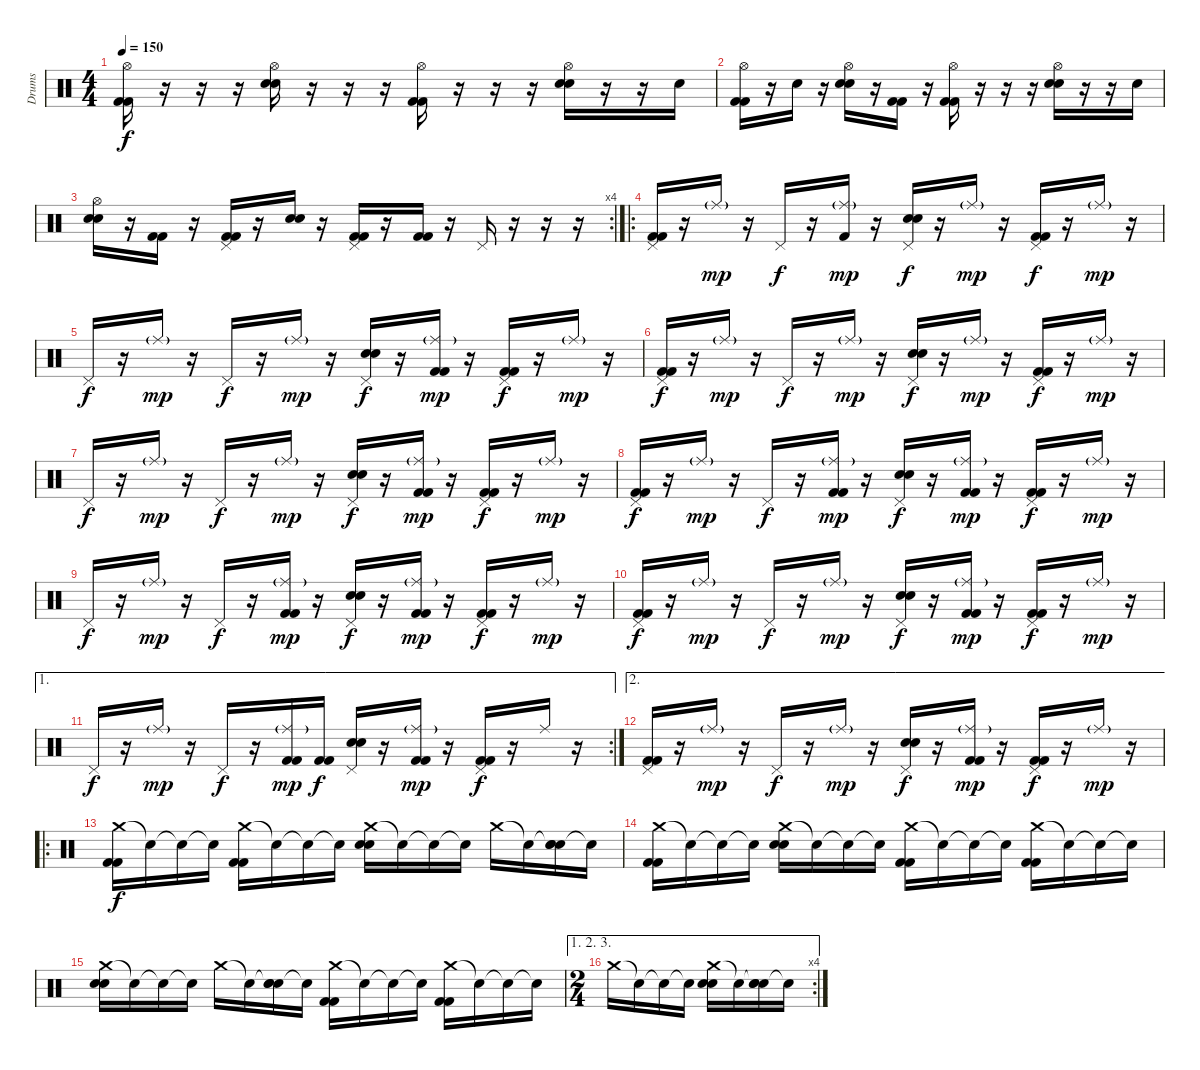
\track ("Drums" "Drums") {instrument percussion}
\staff {score}
\articulation defaults
\ts (4 4)
\tempo 150
\clef neutral
\ks c
("Hi-Hat (open)" "Kick (hit) 2" "Kick (hit) 2").16{dy f} r.16 r.16 r.16 ("Hi-Hat (open)" "Electric Snare (hit)" "Electric Snare (hit)").16 r.16 r.16 r.16 ("Hi-Hat (open)" "Kick (hit) 2" "Kick (hit) 2").16 r.16 r.16 r.16 ("Hi-Hat (open)" "Electric Snare (hit)" "Electric Snare (hit)").16 r.16 r.16 "Electric Snare (hit)".16 |
("Hi-Hat (open)" "Kick (hit) 2" "Kick (hit) 2").16 r.16 "Electric Snare (hit)".16 r.16 ("Hi-Hat (open)" "Electric Snare (hit)" "Electric Snare (hit)").16 r.16 ("Kick (hit) 2" "Kick (hit) 2").16 r.16 ("Hi-Hat (open)" "Kick (hit) 2" "Kick (hit) 2").16 r.16 r.16 r.16 ("Hi-Hat (open)" "Electric Snare (hit)" "Electric Snare (hit)").16 r.16 r.16 "Electric Snare (hit)".16 |
\rc 4
("Hi-Hat (open)" "Electric Snare (hit)" "Electric Snare (hit)").16 r.16 ("Kick (hit) 2" "Kick (hit) 2").16 r.16 ("Pedal Hi-Hat (hit)" "Kick (hit) 2" "Kick (hit) 2").16 r.16 ("Electric Snare (hit)" "Electric Snare (hit)").16 r.16 ("Pedal Hi-Hat (hit)" "Kick (hit) 2" "Kick (hit) 2").16 r.16 ("Kick (hit) 2" "Kick (hit) 2").16 r.16 "Pedal Hi-Hat (hit)".16 r.16 r.16 r.16 |
\ro
("Pedal Hi-Hat (hit)" "Kick (hit) 2" "Kick (hit) 2").16 r.16 "Ride (middle)"{g}.16{dy mp} r.16 "Pedal Hi-Hat (hit)".16{dy f} r.16 ("Ride (middle)"{g} "Kick (hit) 2").16{dy mp} r.16 ("Pedal Hi-Hat (hit)" "Electric Snare (hit)" "Electric Snare (hit)").16{dy f} r.16 "Ride (middle)"{g}.16{dy mp} r.16 ("Pedal Hi-Hat (hit)" "Kick (hit) 2" "Kick (hit) 2").16{dy f} r.16 "Ride (middle)"{g}.16{dy mp} r.16 |
"Pedal Hi-Hat (hit)".16{dy f} r.16 "Ride (middle)"{g}.16{dy mp} r.16 "Pedal Hi-Hat (hit)".16{dy f} r.16 "Ride (middle)"{g}.16{dy mp} r.16 ("Pedal Hi-Hat (hit)" "Electric Snare (hit)" "Electric Snare (hit)").16{dy f} r.16 ("Ride (middle)"{g} "Kick (hit) 2" "Kick (hit) 2").16{dy mp} r.16 ("Pedal Hi-Hat (hit)" "Kick (hit) 2" "Kick (hit) 2").16{dy f} r.16 "Ride (middle)"{g}.16{dy mp} r.16 |
("Pedal Hi-Hat (hit)" "Kick (hit) 2" "Kick (hit) 2").16{dy f} r.16 "Ride (middle)"{g}.16{dy mp} r.16 "Pedal Hi-Hat (hit)".16{dy f} r.16 "Ride (middle)"{g}.16{dy mp} r.16 ("Pedal Hi-Hat (hit)" "Electric Snare (hit)" "Electric Snare (hit)").16{dy f} r.16 "Ride (middle)"{g}.16{dy mp} r.16 ("Pedal Hi-Hat (hit)" "Kick (hit) 2" "Kick (hit) 2").16{dy f} r.16 "Ride (middle)"{g}.16{dy mp} r.16 |
"Pedal Hi-Hat (hit)".16{dy f} r.16 "Ride (middle)"{g}.16{dy mp} r.16 "Pedal Hi-Hat (hit)".16{dy f} r.16 "Ride (middle)"{g}.16{dy mp} r.16 ("Pedal Hi-Hat (hit)" "Electric Snare (hit)" "Electric Snare (hit)").16{dy f} r.16 ("Ride (middle)"{g} "Kick (hit) 2" "Kick (hit) 2").16{dy mp} r.16 ("Pedal Hi-Hat (hit)" "Kick (hit) 2" "Kick (hit) 2").16{dy f} r.16 "Ride (middle)"{g}.16{dy mp} r.16 |
("Pedal Hi-Hat (hit)" "Kick (hit) 2" "Kick (hit) 2").16{dy f} r.16 "Ride (middle)"{g}.16{dy mp} r.16 "Pedal Hi-Hat (hit)".16{dy f} r.16 ("Ride (middle)"{g} "Kick (hit) 2" "Kick (hit) 2").16{dy mp} r.16 ("Pedal Hi-Hat (hit)" "Electric Snare (hit)" "Electric Snare (hit)").16{dy f} r.16 ("Ride (middle)"{g} "Kick (hit) 2" "Kick (hit) 2").16{dy mp} r.16 ("Pedal Hi-Hat (hit)" "Kick (hit) 2" "Kick (hit) 2").16{dy f} r.16 "Ride (middle)"{g}.16{dy mp} r.16 |
"Pedal Hi-Hat (hit)".16{dy f} r.16 "Ride (middle)"{g}.16{dy mp} r.16 "Pedal Hi-Hat (hit)".16{dy f} r.16 ("Ride (middle)"{g} "Kick (hit) 2" "Kick (hit) 2").16{dy mp} r.16 ("Pedal Hi-Hat (hit)" "Electric Snare (hit)" "Electric Snare (hit)").16{dy f} r.16 ("Ride (middle)"{g} "Kick (hit) 2" "Kick (hit) 2").16{dy mp} r.16 ("Pedal Hi-Hat (hit)" "Kick (hit) 2" "Kick (hit) 2").16{dy f} r.16 "Ride (middle)"{g}.16{dy mp} r.16 |
("Pedal Hi-Hat (hit)" "Kick (hit) 2" "Kick (hit) 2").16{dy f} r.16 "Ride (middle)"{g}.16{dy mp} r.16 "Pedal Hi-Hat (hit)".16{dy f} r.16 "Ride (middle)"{g}.16{dy mp} r.16 ("Pedal Hi-Hat (hit)" "Electric Snare (hit)" "Electric Snare (hit)").16{dy f} r.16 ("Ride (middle)"{g} "Kick (hit) 2" "Kick (hit) 2").16{dy mp} r.16 ("Pedal Hi-Hat (hit)" "Kick (hit) 2" "Kick (hit) 2").16{dy f} r.16 "Ride (middle)"{g}.16{dy mp} r.16 |
\ae 1
\rc 2 "Pedal Hi-Hat (hit)".16{dy f}
r.16 "Ride (middle)"{g}.16{dy mp} r.16 "Pedal Hi-Hat (hit)".16{dy f} r.16 ("Ride (middle)"{g} "Kick (hit) 2" "Kick (hit) 2").16{dy mp} ("Kick (hit) 2" "Kick (hit) 2").16{dy f} ("Pedal Hi-Hat (hit)" "Electric Snare (hit)" "Electric Snare (hit)").16 r.16 ("Ride (middle)"{g} "Kick (hit) 2" "Kick (hit) 2").16{dy mp} r.16 ("Pedal Hi-Hat (hit)" "Kick (hit) 2" "Kick (hit) 2").16{dy f} r.16 "Ride (middle)".16 r.16 |
\ae 2
("Pedal Hi-Hat (hit)" "Kick (hit) 2" "Kick (hit) 2").16 r.16 "Ride (middle)"{g}.16{dy mp} r.16 "Pedal Hi-Hat (hit)".16{dy f} r.16 "Ride (middle)"{g}.16{dy mp} r.16 ("Pedal Hi-Hat (hit)" "Electric Snare (hit)" "Electric Snare (hit)").16{dy f} r.16 ("Ride (middle)"{g} "Kick (hit) 2" "Kick (hit) 2").16{dy mp} r.16 ("Pedal Hi-Hat (hit)" "Kick (hit) 2" "Kick (hit) 2").16{dy f} r.16 "Ride (middle)"{g}.16{dy mp} r.16 |
\ro
("Crash medium (hit)" "Kick (hit) 2" "Kick (hit) 2").16{dy f} "Snare (hit)"{t}.16 "Snare (hit)"{t}.16 "Snare (hit)"{t}.16 ("Crash medium (hit)" "Kick (hit) 2" "Kick (hit) 2").16 "Snare (hit)"{t}.16 "Snare (hit)"{t}.16 "Snare (hit)"{t}.16 ("Crash medium (hit)" "Electric Snare (hit)" "Electric Snare (hit)").16 "Snare (hit)"{t}.16 "Snare (hit)"{t}.16 "Snare (hit)"{t}.16 "Crash medium (hit)".16 "Snare (hit)"{t}.16 ("Snare (hit)"{t} "Electric Snare (hit)" "Electric Snare (hit)").16 "Snare (hit)"{t}.16 |
("Crash medium (hit)" "Kick (hit) 2" "Kick (hit) 2").16 "Snare (hit)"{t}.16 "Snare (hit)"{t}.16 "Snare (hit)"{t}.16 ("Crash medium (hit)" "Electric Snare (hit)" "Electric Snare (hit)").16 "Snare (hit)"{t}.16 "Snare (hit)"{t}.16 "Snare (hit)"{t}.16 ("Crash medium (hit)" "Kick (hit) 2" "Kick (hit) 2").16 "Snare (hit)"{t}.16 "Snare (hit)"{t}.16 "Snare (hit)"{t}.16 ("Crash medium (hit)" "Kick (hit) 2" "Kick (hit) 2").16 "Snare (hit)"{t}.16 "Snare (hit)"{t}.16 "Snare (hit)"{t}.16 |
("Crash medium (hit)" "Electric Snare (hit)" "Electric Snare (hit)").16 "Snare (hit)"{t}.16 "Snare (hit)"{t}.16 "Snare (hit)"{t}.16 "Crash medium (hit)".16 "Snare (hit)"{t}.16 ("Snare (hit)"{t} "Electric Snare (hit)" "Electric Snare (hit)").16 "Snare (hit)"{t}.16 ("Crash medium (hit)" "Kick (hit) 2" "Kick (hit) 2").16 "Snare (hit)"{t}.16 "Snare (hit)"{t}.16 "Snare (hit)"{t}.16 ("Crash medium (hit)" "Kick (hit) 2" "Kick (hit) 2").16 "Snare (hit)"{t}.16 "Snare (hit)"{t}.16 "Snare (hit)"{t}.16 |
\ae (1 2 3)
\rc 4
\ts (2 4)
"Crash medium (hit)".16 "Snare (hit)"{t}.16 "Snare (hit)"{t}.16 "Snare (hit)"{t}.16 ("Crash medium (hit)" "Electric Snare (hit)" "Electric Snare (hit)").16 "Snare (hit)"{t}.16 ("Snare (hit)"{t} "Electric Snare (hit)" "Electric Snare (hit)").16 "Snare (hit)"{t}.16
